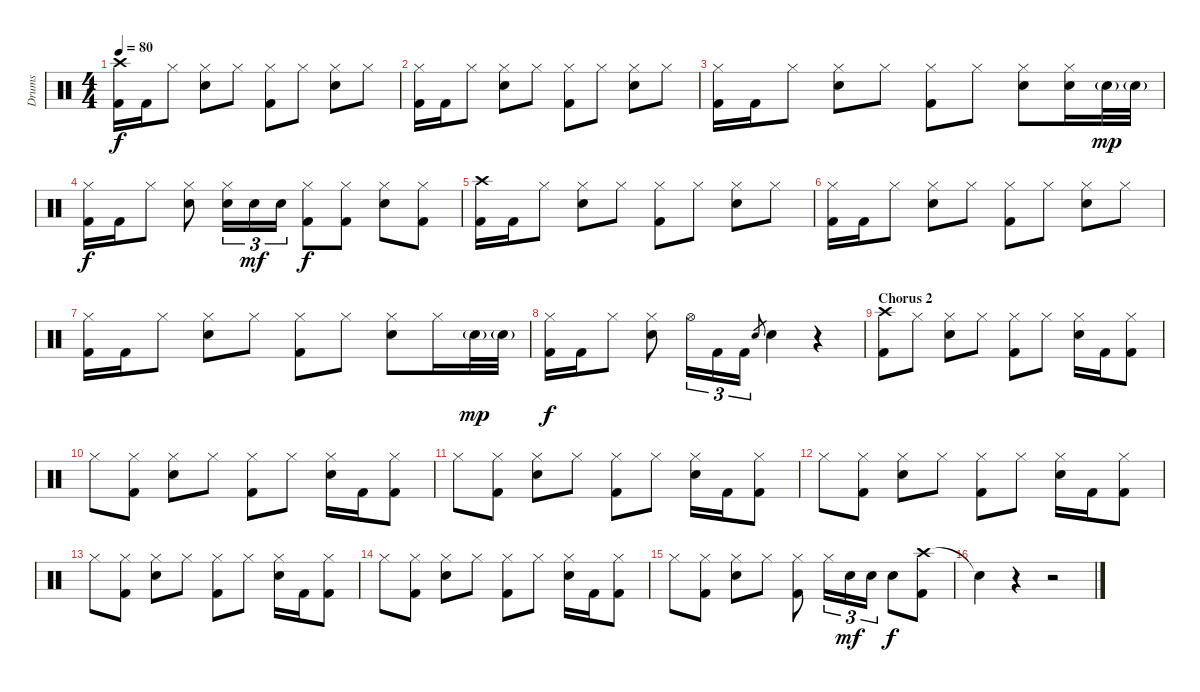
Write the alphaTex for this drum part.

\track ("Drums" "Drums") {instrument percussion}
\staff {score}
\articulation defaults
\ts (4 4)
\tempo 80
\clef neutral
\ks c
("Crash high (hit)" "Kick (hit) 2").16{dy f} "Kick (hit) 2".16 "Hi-Hat (closed)".8 ("Hi-Hat (closed)" "Electric Snare (hit)").8 "Hi-Hat (closed)".8 ("Hi-Hat (closed)" "Kick (hit) 2").8 "Hi-Hat (closed)".8 ("Hi-Hat (closed)" "Electric Snare (hit)").8 "Hi-Hat (closed)".8 |
("Hi-Hat (closed)" "Kick (hit) 2").16 "Kick (hit) 2".16 "Hi-Hat (closed)".8 ("Hi-Hat (closed)" "Electric Snare (hit)").8 "Hi-Hat (closed)".8 ("Hi-Hat (closed)" "Kick (hit) 2").8 "Hi-Hat (closed)".8 ("Hi-Hat (closed)" "Electric Snare (hit)").8 "Hi-Hat (closed)".8 |
("Hi-Hat (closed)" "Kick (hit) 2").16 "Kick (hit) 2".16 "Hi-Hat (closed)".8 ("Hi-Hat (closed)" "Electric Snare (hit)").8 "Hi-Hat (closed)".8 ("Hi-Hat (closed)" "Kick (hit) 2").8 "Hi-Hat (closed)".8 ("Hi-Hat (closed)" "Electric Snare (hit)").8 ("Hi-Hat (closed)" "Electric Snare (hit)").16 "Electric Snare (hit)"{g}.32{dy mp} "Electric Snare (hit)"{g}.32 |
("Hi-Hat (closed)" "Kick (hit) 2").16{dy f} "Kick (hit) 2".16 "Hi-Hat (closed)".8 ("Hi-Hat (closed)" "Electric Snare (hit)").8 ("Hi-Hat (closed)" "Electric Snare (hit)").16{tu (3 2)} "Electric Snare (hit)".16{tu (3 2) dy mf} "Electric Snare (hit)".16{tu (3 2)} ("Hi-Hat (closed)" "Kick (hit) 2").8{dy f} ("Hi-Hat (closed)" "Kick (hit) 2").8 ("Hi-Hat (closed)" "Electric Snare (hit)").8 ("Hi-Hat (closed)" "Kick (hit) 2").8 |
("Crash high (hit)" "Kick (hit) 2").16 "Kick (hit) 2".16 "Hi-Hat (closed)".8 ("Hi-Hat (closed)" "Electric Snare (hit)").8 "Hi-Hat (closed)".8 ("Hi-Hat (closed)" "Kick (hit) 2").8 "Hi-Hat (closed)".8 ("Hi-Hat (closed)" "Electric Snare (hit)").8 "Hi-Hat (closed)".8 |
("Hi-Hat (closed)" "Kick (hit) 2").16 "Kick (hit) 2".16 "Hi-Hat (closed)".8 ("Hi-Hat (closed)" "Electric Snare (hit)").8 "Hi-Hat (closed)".8 ("Hi-Hat (closed)" "Kick (hit) 2").8 "Hi-Hat (closed)".8 ("Hi-Hat (closed)" "Electric Snare (hit)").8 "Hi-Hat (closed)".8 |
("Hi-Hat (closed)" "Kick (hit) 2").16 "Kick (hit) 2".16 "Hi-Hat (closed)".8 ("Hi-Hat (closed)" "Electric Snare (hit)").8 "Hi-Hat (closed)".8 ("Hi-Hat (closed)" "Kick (hit) 2").8 "Hi-Hat (closed)".8 ("Hi-Hat (closed)" "Electric Snare (hit)").8 "Hi-Hat (closed)".16 "Electric Snare (hit)"{g}.32{dy mp} "Electric Snare (hit)"{g}.32 |
("Hi-Hat (closed)" "Kick (hit) 2").16{dy f} "Kick (hit) 2".16 "Hi-Hat (closed)".8 ("Hi-Hat (closed)" "Electric Snare (hit)").8 "Hi-Hat (open)".16{tu (3 2)} "Kick (hit) 2".16{tu (3 2)} "Kick (hit) 2".16{tu (3 2)} "Electric Snare (hit)".8{gr} "Electric Snare (hit)".4 r.4 |
\section ("" "Chorus 2")
("Crash high (hit)" "Kick (hit) 2").8 "Hi-Hat (closed)".8 ("Hi-Hat (closed)" "Electric Snare (hit)").8 "Hi-Hat (closed)".8 ("Hi-Hat (closed)" "Kick (hit) 2").8 "Hi-Hat (closed)".8 ("Hi-Hat (closed)" "Electric Snare (hit)").16 "Kick (hit) 2".16 ("Hi-Hat (closed)" "Kick (hit) 2").8 |
"Hi-Hat (closed)".8 ("Hi-Hat (closed)" "Kick (hit) 2").8 ("Hi-Hat (closed)" "Electric Snare (hit)").8 "Hi-Hat (closed)".8 ("Hi-Hat (closed)" "Kick (hit) 2").8 "Hi-Hat (closed)".8 ("Hi-Hat (closed)" "Electric Snare (hit)").16 "Kick (hit) 2".16 ("Hi-Hat (closed)" "Kick (hit) 2").8 |
"Hi-Hat (closed)".8 ("Hi-Hat (closed)" "Kick (hit) 2").8 ("Hi-Hat (closed)" "Electric Snare (hit)").8 "Hi-Hat (closed)".8 ("Hi-Hat (closed)" "Kick (hit) 2").8 "Hi-Hat (closed)".8 ("Hi-Hat (closed)" "Electric Snare (hit)").16 "Kick (hit) 2".16 ("Hi-Hat (closed)" "Kick (hit) 2").8 |
"Hi-Hat (closed)".8 ("Hi-Hat (closed)" "Kick (hit) 2").8 ("Hi-Hat (closed)" "Electric Snare (hit)").8 "Hi-Hat (closed)".8 ("Hi-Hat (closed)" "Kick (hit) 2").8 "Hi-Hat (closed)".8 ("Hi-Hat (closed)" "Electric Snare (hit)").16 "Kick (hit) 2".16 ("Hi-Hat (closed)" "Kick (hit) 2").8 |
"Hi-Hat (closed)".8 ("Hi-Hat (closed)" "Kick (hit) 2").8 ("Hi-Hat (closed)" "Electric Snare (hit)").8 "Hi-Hat (closed)".8 ("Hi-Hat (closed)" "Kick (hit) 2").8 "Hi-Hat (closed)".8 ("Hi-Hat (closed)" "Electric Snare (hit)").16 "Kick (hit) 2".16 ("Hi-Hat (closed)" "Kick (hit) 2").8 |
"Hi-Hat (closed)".8 ("Hi-Hat (closed)" "Kick (hit) 2").8 ("Hi-Hat (closed)" "Electric Snare (hit)").8 "Hi-Hat (closed)".8 ("Hi-Hat (closed)" "Kick (hit) 2").8 "Hi-Hat (closed)".8 ("Hi-Hat (closed)" "Electric Snare (hit)").16 "Kick (hit) 2".16 ("Hi-Hat (closed)" "Kick (hit) 2").8 |
"Hi-Hat (closed)".8 ("Hi-Hat (closed)" "Kick (hit) 2").8 ("Hi-Hat (closed)" "Electric Snare (hit)").8 "Hi-Hat (closed)".8 ("Hi-Hat (closed)" "Kick (hit) 2").8 "Hi-Hat (closed)".16{tu (3 2)} "Electric Snare (hit)".16{tu (3 2) dy mf} "Electric Snare (hit)".16{tu (3 2)} "Electric Snare (hit)".8{dy f} ("Crash high (hit)" "Kick (hit) 2").8 |
"Snare (hit)"{t}.4 r.4 r.2
